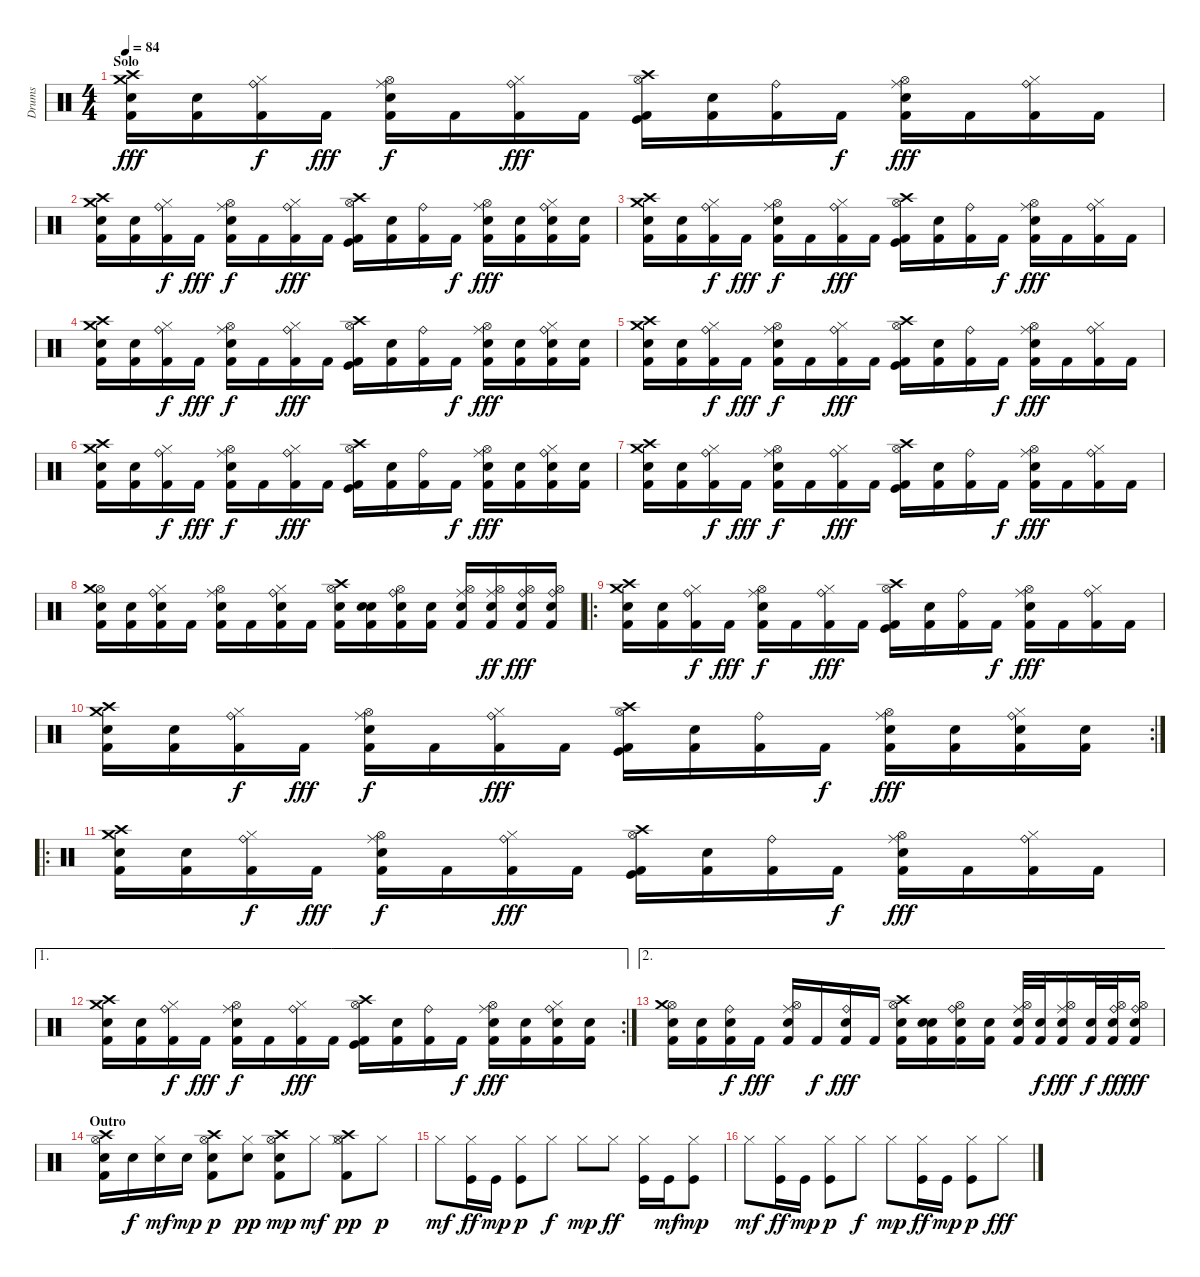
\track ("Drums" "Drums") {instrument percussion}
\staff {score}
\articulation defaults
\ts (4 4)
\section ("" "Solo")
\tempo 84
\clef neutral
\ks c
("Crash high (hit)" "Crash medium (hit)" "Kick (hit) 2" "Snare (hit) 2").16{dy fff} ("Metronome (bell)" "Kick (hit) 2").16 ("Hi-Hat (closed)" "Ride (bell)" "Kick (hit) 2").16{dy f} "Kick (hit) 2".16{dy fff} ("Hi-Hat (open)" "Ride (middle)" "Kick (hit) 2" "Snare (hit) 2").16{dy f} "Kick (hit) 2".16 ("Hi-Hat (closed)" "Ride (bell)" "Kick (hit) 2").16{dy fff} "Kick (hit) 2".16 ("Crash high (hit)" "Hi-Hat (open)" "Kick (hit) 2" "Kick (hit)").16 ("Metronome (bell)" "Kick (hit) 2").16 ("Ride (bell)" "Kick (hit) 2").16 "Kick (hit) 2".16{dy f} ("Hi-Hat (open)" "Ride (middle)" "Kick (hit) 2" "Snare (hit) 2").16{dy fff} "Kick (hit) 2".16 ("Hi-Hat (closed)" "Ride (bell)" "Kick (hit) 2").16 "Kick (hit) 2".16 |
("Crash high (hit)" "Crash medium (hit)" "Kick (hit) 2" "Snare (hit) 2").16 ("Metronome (bell)" "Kick (hit) 2").16 ("Hi-Hat (closed)" "Ride (bell)" "Kick (hit) 2").16{dy f} "Kick (hit) 2".16{dy fff} ("Hi-Hat (open)" "Ride (middle)" "Kick (hit) 2" "Snare (hit) 2").16{dy f} "Kick (hit) 2".16 ("Hi-Hat (closed)" "Ride (bell)" "Kick (hit) 2").16{dy fff} "Kick (hit) 2".16 ("Crash high (hit)" "Hi-Hat (open)" "Kick (hit) 2" "Kick (hit)").16 ("Metronome (bell)" "Kick (hit) 2").16 ("Ride (bell)" "Kick (hit) 2").16 "Kick (hit) 2".16{dy f} ("Hi-Hat (open)" "Ride (middle)" "Kick (hit) 2" "Snare (hit) 2").16{dy fff} ("Electric Snare (hit)" "Kick (hit) 2").16 ("Hi-Hat (closed)" "Ride (bell)" "Electric Snare (hit)" "Kick (hit) 2").16 ("Electric Snare (hit)" "Kick (hit) 2").16 |
("Crash high (hit)" "Crash medium (hit)" "Kick (hit) 2" "Snare (hit) 2").16 ("Metronome (bell)" "Kick (hit) 2").16 ("Hi-Hat (closed)" "Ride (bell)" "Kick (hit) 2").16{dy f} "Kick (hit) 2".16{dy fff} ("Hi-Hat (open)" "Ride (middle)" "Kick (hit) 2" "Snare (hit) 2").16{dy f} "Kick (hit) 2".16 ("Hi-Hat (closed)" "Ride (bell)" "Kick (hit) 2").16{dy fff} "Kick (hit) 2".16 ("Crash high (hit)" "Hi-Hat (open)" "Kick (hit) 2" "Kick (hit)").16 ("Metronome (bell)" "Kick (hit) 2").16 ("Ride (bell)" "Kick (hit) 2").16 "Kick (hit) 2".16{dy f} ("Hi-Hat (open)" "Ride (middle)" "Kick (hit) 2" "Snare (hit) 2").16{dy fff} "Kick (hit) 2".16 ("Hi-Hat (closed)" "Ride (bell)" "Kick (hit) 2").16 "Kick (hit) 2".16 |
("Crash high (hit)" "Crash medium (hit)" "Kick (hit) 2" "Snare (hit) 2").16 ("Metronome (bell)" "Kick (hit) 2").16 ("Hi-Hat (closed)" "Ride (bell)" "Kick (hit) 2").16{dy f} "Kick (hit) 2".16{dy fff} ("Hi-Hat (open)" "Ride (middle)" "Kick (hit) 2" "Snare (hit) 2").16{dy f} "Kick (hit) 2".16 ("Hi-Hat (closed)" "Ride (bell)" "Kick (hit) 2").16{dy fff} "Kick (hit) 2".16 ("Crash high (hit)" "Hi-Hat (open)" "Kick (hit) 2" "Kick (hit)").16 ("Metronome (bell)" "Kick (hit) 2").16 ("Ride (bell)" "Kick (hit) 2").16 "Kick (hit) 2".16{dy f} ("Hi-Hat (open)" "Ride (middle)" "Kick (hit) 2" "Snare (hit) 2").16{dy fff} ("Electric Snare (hit)" "Kick (hit) 2").16 ("Hi-Hat (closed)" "Ride (bell)" "Electric Snare (hit)" "Kick (hit) 2").16 ("Electric Snare (hit)" "Kick (hit) 2").16 |
("Crash high (hit)" "Crash medium (hit)" "Kick (hit) 2" "Snare (hit) 2").16 ("Metronome (bell)" "Kick (hit) 2").16 ("Hi-Hat (closed)" "Ride (bell)" "Kick (hit) 2").16{dy f} "Kick (hit) 2".16{dy fff} ("Hi-Hat (open)" "Ride (middle)" "Kick (hit) 2" "Snare (hit) 2").16{dy f} "Kick (hit) 2".16 ("Hi-Hat (closed)" "Ride (bell)" "Kick (hit) 2").16{dy fff} "Kick (hit) 2".16 ("Crash high (hit)" "Hi-Hat (open)" "Kick (hit) 2" "Kick (hit)").16 ("Metronome (bell)" "Kick (hit) 2").16 ("Ride (bell)" "Kick (hit) 2").16 "Kick (hit) 2".16{dy f} ("Hi-Hat (open)" "Ride (middle)" "Kick (hit) 2" "Snare (hit) 2").16{dy fff} "Kick (hit) 2".16 ("Hi-Hat (closed)" "Ride (bell)" "Kick (hit) 2").16 "Kick (hit) 2".16 |
("Crash high (hit)" "Crash medium (hit)" "Kick (hit) 2" "Snare (hit) 2").16 ("Metronome (bell)" "Kick (hit) 2").16 ("Hi-Hat (closed)" "Ride (bell)" "Kick (hit) 2").16{dy f} "Kick (hit) 2".16{dy fff} ("Hi-Hat (open)" "Ride (middle)" "Kick (hit) 2" "Snare (hit) 2").16{dy f} "Kick (hit) 2".16 ("Hi-Hat (closed)" "Ride (bell)" "Kick (hit) 2").16{dy fff} "Kick (hit) 2".16 ("Crash high (hit)" "Hi-Hat (open)" "Kick (hit) 2" "Kick (hit)").16 ("Metronome (bell)" "Kick (hit) 2").16 ("Ride (bell)" "Kick (hit) 2").16 "Kick (hit) 2".16{dy f} ("Hi-Hat (open)" "Ride (middle)" "Kick (hit) 2" "Snare (hit) 2").16{dy fff} ("Electric Snare (hit)" "Kick (hit) 2").16 ("Hi-Hat (closed)" "Ride (bell)" "Electric Snare (hit)" "Kick (hit) 2").16 ("Electric Snare (hit)" "Kick (hit) 2").16 |
("Crash high (hit)" "Crash medium (hit)" "Kick (hit) 2" "Snare (hit) 2").16 ("Metronome (bell)" "Kick (hit) 2").16 ("Hi-Hat (closed)" "Ride (bell)" "Kick (hit) 2").16{dy f} "Kick (hit) 2".16{dy fff} ("Hi-Hat (open)" "Ride (middle)" "Kick (hit) 2" "Snare (hit) 2").16{dy f} "Kick (hit) 2".16 ("Hi-Hat (closed)" "Ride (bell)" "Kick (hit) 2").16{dy fff} "Kick (hit) 2".16 ("Crash high (hit)" "Hi-Hat (open)" "Kick (hit) 2" "Kick (hit)").16 ("Metronome (bell)" "Kick (hit) 2").16 ("Ride (bell)" "Kick (hit) 2").16 "Kick (hit) 2".16{dy f} ("Hi-Hat (open)" "Ride (middle)" "Kick (hit) 2" "Snare (hit) 2").16{dy fff} "Kick (hit) 2".16 ("Hi-Hat (closed)" "Ride (bell)" "Kick (hit) 2").16 "Kick (hit) 2".16 |
("Hi-Hat (open)" "Crash medium (hit)" "Electric Snare (hit)" "Kick (hit) 2").16 ("Metronome (bell)" "Kick (hit) 2").16 ("Hi-Hat (closed)" "Ride (bell)" "Electric Snare (hit)" "Kick (hit) 2").16 "Kick (hit) 2".16 ("Hi-Hat (open)" "Ride (middle)" "Snare (hit) 2" "Kick (hit) 2").16 "Kick (hit) 2".16 ("Hi-Hat (closed)" "Ride (bell)" "Electric Snare (hit)" "Kick (hit) 2").16 "Kick (hit) 2".16 ("Hi-Hat (open)" "Crash high (hit)" "Kick (hit) 2" "Electric Snare (hit)").16 ("Metronome (bell)" "Kick (hit) 2" "Electric Snare (hit)").16 ("Hi-Hat (open)" "Ride (bell)" "Kick (hit) 2" "Electric Snare (hit)").16 ("Kick (hit) 2" "Electric Snare (hit)").16 ("Hi-Hat (open)" "Ride (middle)" "Kick (hit) 2" "Electric Snare (hit)").16 ("Hi-Hat (open)" "Ride (middle)" "Kick (hit) 2" "Electric Snare (hit)").16{dy ff} ("Hi-Hat (open)" "Ride (bell)" "Kick (hit) 2" "Electric Snare (hit)").16{dy fff} ("Hi-Hat (open)" "Ride (bell)" "Kick (hit) 2" "Electric Snare (hit)").16 |
\ro
("Crash high (hit)" "Crash medium (hit)" "Kick (hit) 2" "Snare (hit) 2").16 ("Metronome (bell)" "Kick (hit) 2").16 ("Hi-Hat (closed)" "Ride (bell)" "Kick (hit) 2").16{dy f} "Kick (hit) 2".16{dy fff} ("Hi-Hat (open)" "Ride (middle)" "Kick (hit) 2" "Snare (hit) 2").16{dy f} "Kick (hit) 2".16 ("Hi-Hat (closed)" "Ride (bell)" "Kick (hit) 2").16{dy fff} "Kick (hit) 2".16 ("Crash high (hit)" "Hi-Hat (open)" "Kick (hit) 2" "Kick (hit)").16 ("Metronome (bell)" "Kick (hit) 2").16 ("Ride (bell)" "Kick (hit) 2").16 "Kick (hit) 2".16{dy f} ("Hi-Hat (open)" "Ride (middle)" "Kick (hit) 2" "Snare (hit) 2").16{dy fff} "Kick (hit) 2".16 ("Hi-Hat (closed)" "Ride (bell)" "Kick (hit) 2").16 "Kick (hit) 2".16 |
\rc 2
("Crash high (hit)" "Crash medium (hit)" "Kick (hit) 2" "Snare (hit) 2").16 ("Metronome (bell)" "Kick (hit) 2").16 ("Hi-Hat (closed)" "Ride (bell)" "Kick (hit) 2").16{dy f} "Kick (hit) 2".16{dy fff} ("Hi-Hat (open)" "Ride (middle)" "Kick (hit) 2" "Snare (hit) 2").16{dy f} "Kick (hit) 2".16 ("Hi-Hat (closed)" "Ride (bell)" "Kick (hit) 2").16{dy fff} "Kick (hit) 2".16 ("Crash high (hit)" "Hi-Hat (open)" "Kick (hit) 2" "Kick (hit)").16 ("Metronome (bell)" "Kick (hit) 2").16 ("Ride (bell)" "Kick (hit) 2").16 "Kick (hit) 2".16{dy f} ("Hi-Hat (open)" "Ride (middle)" "Kick (hit) 2" "Snare (hit) 2").16{dy fff} ("Electric Snare (hit)" "Kick (hit) 2").16 ("Hi-Hat (closed)" "Ride (bell)" "Electric Snare (hit)" "Kick (hit) 2").16 ("Electric Snare (hit)" "Kick (hit) 2").16 |
\ro
("Crash high (hit)" "Crash medium (hit)" "Kick (hit) 2" "Snare (hit) 2").16 ("Metronome (bell)" "Kick (hit) 2").16 ("Hi-Hat (closed)" "Ride (bell)" "Kick (hit) 2").16{dy f} "Kick (hit) 2".16{dy fff} ("Hi-Hat (open)" "Ride (middle)" "Kick (hit) 2" "Snare (hit) 2").16{dy f} "Kick (hit) 2".16 ("Hi-Hat (closed)" "Ride (bell)" "Kick (hit) 2").16{dy fff} "Kick (hit) 2".16 ("Crash high (hit)" "Hi-Hat (open)" "Kick (hit) 2" "Kick (hit)").16 ("Metronome (bell)" "Kick (hit) 2").16 ("Ride (bell)" "Kick (hit) 2").16 "Kick (hit) 2".16{dy f} ("Hi-Hat (open)" "Ride (middle)" "Kick (hit) 2" "Snare (hit) 2").16{dy fff} "Kick (hit) 2".16 ("Hi-Hat (closed)" "Ride (bell)" "Kick (hit) 2").16 "Kick (hit) 2".16 |
\ae 1
\rc 2
("Crash high (hit)" "Crash medium (hit)" "Kick (hit) 2" "Snare (hit) 2").16 ("Metronome (bell)" "Kick (hit) 2").16 ("Hi-Hat (closed)" "Ride (bell)" "Kick (hit) 2").16{dy f} "Kick (hit) 2".16{dy fff} ("Hi-Hat (open)" "Ride (middle)" "Kick (hit) 2" "Snare (hit) 2").16{dy f} "Kick (hit) 2".16 ("Hi-Hat (closed)" "Ride (bell)" "Kick (hit) 2").16{dy fff} "Kick (hit) 2".16 ("Crash high (hit)" "Hi-Hat (open)" "Kick (hit) 2" "Kick (hit)").16 ("Metronome (bell)" "Kick (hit) 2").16 ("Ride (bell)" "Kick (hit) 2").16 "Kick (hit) 2".16{dy f} ("Hi-Hat (open)" "Ride (middle)" "Kick (hit) 2" "Snare (hit) 2").16{dy fff} ("Electric Snare (hit)" "Kick (hit) 2").16 ("Hi-Hat (closed)" "Ride (bell)" "Electric Snare (hit)" "Kick (hit) 2").16 ("Electric Snare (hit)" "Kick (hit) 2").16 |
\ae 2
("Hi-Hat (open)" "Crash medium (hit)" "Kick (hit) 2" "Electric Snare (hit)").16 ("Metronome (bell)" "Kick (hit) 2").16 ("Ride (bell)" "Kick (hit) 2" "Electric Snare (hit)").16{dy f} "Kick (hit) 2".16{dy fff} ("Hi-Hat (open)" "Ride (middle)" "Kick (hit) 2" "Electric Snare (hit)").16 "Kick (hit) 2".16{dy f} ("Ride (bell)" "Kick (hit) 2" "Electric Snare (hit)").16{dy fff} "Kick (hit) 2".16 ("Hi-Hat (open)" "Crash high (hit)" "Kick (hit) 2" "Electric Snare (hit)").16 ("Metronome (bell)" "Kick (hit) 2" "Electric Snare (hit)").16 ("Hi-Hat (open)" "Ride (bell)" "Kick (hit) 2" "Electric Snare (hit)").16 ("Kick (hit) 2" "Electric Snare (hit)").16 ("Hi-Hat (open)" "Ride (middle)" "Kick (hit) 2" "Electric Snare (hit)").32 ("Kick (hit) 2" "Electric Snare (hit)").32{dy f} ("Hi-Hat (open)" "Ride (middle)" "Kick (hit) 2" "Electric Snare (hit)").16{dy fff} ("Kick (hit) 2" "Electric Snare (hit)").32{dy f} ("Hi-Hat (open)" "Ride (bell)" "Kick (hit) 2" "Electric Snare (hit)").32{dy ff} ("Hi-Hat (open)" "Ride (bell)" "Kick (hit) 2" "Electric Snare (hit)").16{dy fff} |
\section ("" "Outro")
("Crash high (hit)" "Hi-Hat (open)" "Electric Snare (hit)" "Kick (hit) 2").16 "Electric Snare (hit)".16{dy f} ("Hi-Hat (closed)" "Electric Snare (hit)").16{dy mf} "Electric Snare (hit)".16{dy mp} ("Crash high (hit)" "Hi-Hat (open)" "Electric Snare (hit)" "Kick (hit) 2").8{dy p} ("Hi-Hat (closed)" "Electric Snare (hit)").8{dy pp} ("Crash high (hit)" "Hi-Hat (open)" "Electric Snare (hit)" "Kick (hit) 2").8{dy mp} "Hi-Hat (closed)".8{dy mf} ("Crash high (hit)" "Hi-Hat (open)" "Hi-Hat (closed)" "Kick (hit) 2").8{dy pp} "Hi-Hat (closed)".8{dy p} |
"Hi-Hat (closed)".8{dy mf} ("Hi-Hat (closed)" "Kick (hit)").16{dy ff} "Kick (hit)".16{dy mp} ("Hi-Hat (closed)" "Kick (hit)").8{dy p} "Hi-Hat (closed)".8{dy f} "Hi-Hat (closed)".8{dy mp} "Hi-Hat (closed)".8{dy ff} ("Hi-Hat (closed)" "Kick (hit)").16 "Kick (hit)".16{dy mf} ("Hi-Hat (closed)" "Kick (hit)").8{dy mp} |
"Hi-Hat (closed)".8{dy mf} ("Hi-Hat (closed)" "Kick (hit)").16{dy ff} "Kick (hit)".16{dy mp} ("Hi-Hat (closed)" "Kick (hit)").8{dy p} "Hi-Hat (closed)".8{dy f} "Hi-Hat (closed)".8{dy mp} ("Hi-Hat (closed)" "Kick (hit)").16{dy ff} "Kick (hit)".16{dy mp} ("Hi-Hat (closed)" "Kick (hit)").8{dy p} "Hi-Hat (closed)".8{dy fff}
